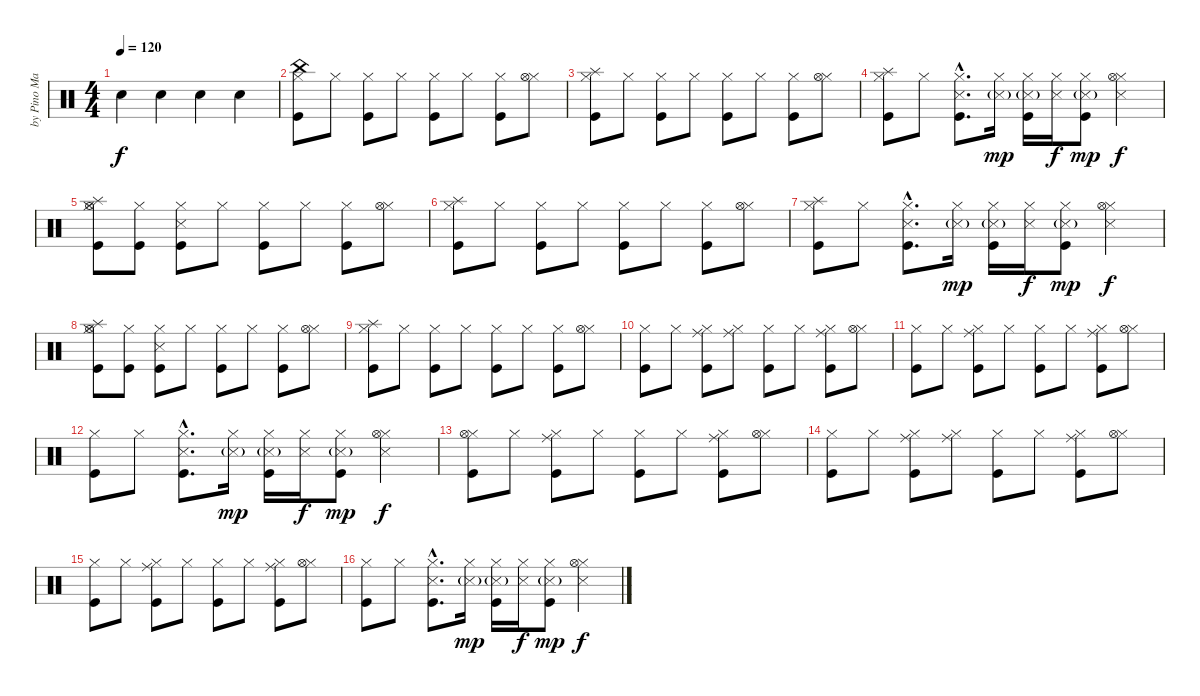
\track ("by Pino Mariconda - e Gianni De Vita" "by Pino Ma") {instrument percussion}
\staff {score}
\articulation defaults
\ts (4 4)
\tempo 120
\clef neutral
\ks c "Hand Clap (hit)".4{dy f} "Hand Clap (hit)".4 "Hand Clap (hit)".4 "Hand Clap (hit)".4
|
("China (hit)" "Hi-Hat (closed)" "Kick (hit)").8 "Hi-Hat (closed)".8 ("Hi-Hat (closed)" "Kick (hit)").8 "Hi-Hat (closed)".8 ("Hi-Hat (closed)" "Kick (hit)").8 "Hi-Hat (closed)".8 ("Hi-Hat (closed)" "Kick (hit)").8 ("Hi-Hat (closed)" "Hi-Hat (open)").8 |
("Splash (hit)" "Hi-Hat (closed)" "Kick (hit)").8 "Hi-Hat (closed)".8 ("Hi-Hat (closed)" "Kick (hit)").8 "Hi-Hat (closed)".8 ("Hi-Hat (closed)" "Kick (hit)").8 "Hi-Hat (closed)".8 ("Hi-Hat (closed)" "Kick (hit)").8 ("Hi-Hat (closed)" "Hi-Hat (open)").8 |
("Splash (hit)" "Hi-Hat (closed)" "Kick (hit)").8 "Hi-Hat (closed)".8 ("Hi-Hat (closed)"{hac} "Kick (hit)"{hac} "Snare (side stick) 3"{hac}).8{d} ("Hi-Hat (closed)" "Snare (side stick) 3"{g}).16{dy mp} ("Hi-Hat (closed)" "Kick (hit)" "Snare (side stick) 3"{g}).16 ("Hi-Hat (closed)" "Snare (side stick) 3").16{dy f} ("Hi-Hat (closed)" "Kick (hit)" "Snare (side stick) 3"{g}).8{dy mp} ("Hi-Hat (closed)" "Hi-Hat (open)" "Snare (side stick) 3").4{dy f} |
("Splash (hit)" "Hi-Hat (closed)" "Kick (hit)" "Hi-Hat (open)").8 ("Hi-Hat (closed)" "Kick (hit)").8 ("Hi-Hat (closed)" "Kick (hit)" "Snare (side stick) 3").8 "Hi-Hat (closed)".8 ("Hi-Hat (closed)" "Kick (hit)").8 "Hi-Hat (closed)".8 ("Hi-Hat (closed)" "Kick (hit)").8 ("Hi-Hat (closed)" "Hi-Hat (open)").8 |
("Splash (hit)" "Hi-Hat (closed)" "Kick (hit)").8 "Hi-Hat (closed)".8 ("Hi-Hat (closed)" "Kick (hit)").8 "Hi-Hat (closed)".8 ("Hi-Hat (closed)" "Kick (hit)").8 "Hi-Hat (closed)".8 ("Hi-Hat (closed)" "Kick (hit)").8 ("Hi-Hat (closed)" "Hi-Hat (open)").8 |
("Splash (hit)" "Hi-Hat (closed)" "Kick (hit)").8 "Hi-Hat (closed)".8 ("Hi-Hat (closed)"{hac} "Kick (hit)"{hac} "Snare (side stick) 3"{hac}).8{d} ("Hi-Hat (closed)" "Snare (side stick) 3"{g}).16{dy mp} ("Hi-Hat (closed)" "Kick (hit)" "Snare (side stick) 3"{g}).16 ("Hi-Hat (closed)" "Snare (side stick) 3").16{dy f} ("Hi-Hat (closed)" "Kick (hit)" "Snare (side stick) 3"{g}).8{dy mp} ("Hi-Hat (closed)" "Hi-Hat (open)" "Snare (side stick) 3").4{dy f} |
("Splash (hit)" "Hi-Hat (closed)" "Kick (hit)" "Hi-Hat (open)").8 ("Hi-Hat (closed)" "Kick (hit)").8 ("Hi-Hat (closed)" "Kick (hit)" "Snare (side stick) 3").8 "Hi-Hat (closed)".8 ("Hi-Hat (closed)" "Kick (hit)").8 "Hi-Hat (closed)".8 ("Hi-Hat (closed)" "Kick (hit)").8 ("Hi-Hat (closed)" "Hi-Hat (open)").8 |
("Splash (hit)" "Hi-Hat (closed)" "Kick (hit)").8 "Hi-Hat (closed)".8 ("Hi-Hat (closed)" "Kick (hit)").8 "Hi-Hat (closed)".8 ("Hi-Hat (closed)" "Kick (hit)").8 "Hi-Hat (closed)".8 ("Hi-Hat (closed)" "Kick (hit)").8 ("Hi-Hat (closed)" "Hi-Hat (open)").8 |
("Hi-Hat (closed)" "Kick (hit)").8 "Hi-Hat (closed)".8 ("Ride (middle)" "Hi-Hat (closed)" "Kick (hit)").8 ("Ride (middle)" "Hi-Hat (closed)").8 ("Hi-Hat (closed)" "Kick (hit)").8 "Hi-Hat (closed)".8 ("Ride (middle)" "Hi-Hat (closed)" "Kick (hit)").8 ("Hi-Hat (closed)" "Hi-Hat (open)").8 |
("Hi-Hat (closed)" "Kick (hit)").8 "Hi-Hat (closed)".8 ("Ride (middle)" "Hi-Hat (closed)" "Kick (hit)").8 "Hi-Hat (closed)".8 ("Hi-Hat (closed)" "Kick (hit)").8 "Hi-Hat (closed)".8 ("Ride (middle)" "Hi-Hat (closed)" "Kick (hit)").8 ("Hi-Hat (closed)" "Hi-Hat (open)").8 |
("Hi-Hat (closed)" "Kick (hit)").8 "Hi-Hat (closed)".8 ("Hi-Hat (closed)"{hac} "Kick (hit)"{hac} "Snare (side stick) 3"{hac}).8{d} ("Hi-Hat (closed)" "Snare (side stick) 3"{g}).16{dy mp} ("Hi-Hat (closed)" "Kick (hit)" "Snare (side stick) 3"{g}).16 ("Hi-Hat (closed)" "Snare (side stick) 3").16{dy f} ("Hi-Hat (closed)" "Kick (hit)" "Snare (side stick) 3"{g}).8{dy mp} ("Hi-Hat (closed)" "Hi-Hat (open)" "Snare (side stick) 3").4{dy f} |
("Hi-Hat (closed)" "Hi-Hat (open)" "Kick (hit)").8 "Hi-Hat (closed)".8 ("Ride (middle)" "Hi-Hat (closed)" "Kick (hit)").8 "Hi-Hat (closed)".8 ("Hi-Hat (closed)" "Kick (hit)").8 "Hi-Hat (closed)".8 ("Ride (middle)" "Hi-Hat (closed)" "Kick (hit)").8 ("Hi-Hat (closed)" "Hi-Hat (open)").8 |
("Hi-Hat (closed)" "Kick (hit)").8 "Hi-Hat (closed)".8 ("Ride (middle)" "Hi-Hat (closed)" "Kick (hit)").8 ("Ride (middle)" "Hi-Hat (closed)").8 ("Hi-Hat (closed)" "Kick (hit)").8 "Hi-Hat (closed)".8 ("Ride (middle)" "Hi-Hat (closed)" "Kick (hit)").8 ("Hi-Hat (closed)" "Hi-Hat (open)").8 |
("Hi-Hat (closed)" "Kick (hit)").8 "Hi-Hat (closed)".8 ("Ride (middle)" "Hi-Hat (closed)" "Kick (hit)").8 "Hi-Hat (closed)".8 ("Hi-Hat (closed)" "Kick (hit)").8 "Hi-Hat (closed)".8 ("Ride (middle)" "Hi-Hat (closed)" "Kick (hit)").8 ("Hi-Hat (closed)" "Hi-Hat (open)").8 |
("Hi-Hat (closed)" "Kick (hit)").8 "Hi-Hat (closed)".8 ("Hi-Hat (closed)"{hac} "Kick (hit)"{hac} "Snare (side stick) 3"{hac}).8{d} ("Hi-Hat (closed)" "Snare (side stick) 3"{g}).16{dy mp} ("Hi-Hat (closed)" "Kick (hit)" "Snare (side stick) 3"{g}).16 ("Hi-Hat (closed)" "Snare (side stick) 3").16{dy f} ("Hi-Hat (closed)" "Kick (hit)" "Snare (side stick) 3"{g}).8{dy mp} ("Hi-Hat (closed)" "Hi-Hat (open)" "Snare (side stick) 3").4{dy f}
